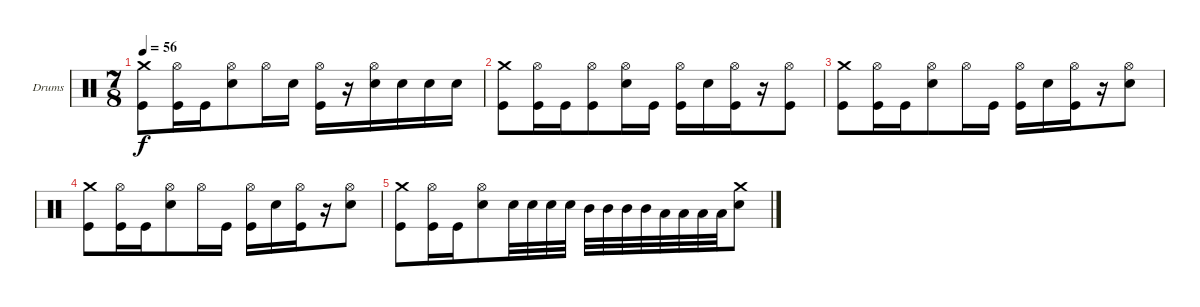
\bracketExtendMode groupsimilarinstruments
\firstSystemTrackNameOrientation horizontal
\otherSystemsTrackNameOrientation horizontal
\track ("Drumkit" "Drums") {instrument percussion}
\staff {score}
\articulation defaults
\ts (7 8)
\tempo 56
\clef neutral
\ks c
("Kick (hit)" "Crash medium (hit)").8{dy f} ("Kick (hit)" "Hi-Hat (open)").16 "Kick (hit)".16 ("Snare (hit) 2" "Hi-Hat (open)").8 "Hi-Hat (open)".16 "Snare (hit) 2".16 ("Kick (hit)" "Hi-Hat (open)").16 r.16 ("Hi-Hat (open)" "Snare (hit) 2").16 "Snare (hit) 2".16 "Snare (hit) 2".16 "Snare (hit) 2".16 |
("Kick (hit)" "Crash medium (hit)").8 ("Kick (hit)" "Hi-Hat (open)").16 "Kick (hit)".16 ("Hi-Hat (open)" "Kick (hit)").8 ("Hi-Hat (open)" "Snare (hit) 2").16 "Kick (hit)".16 ("Hi-Hat (open)" "Kick (hit)").16 "Snare (hit) 2".16 ("Kick (hit)" "Hi-Hat (open)").16 r.16 ("Hi-Hat (open)" "Kick (hit)").8 |
("Kick (hit)" "Crash medium (hit)").8 ("Kick (hit)" "Hi-Hat (open)").16 "Kick (hit)".16 ("Snare (hit) 2" "Hi-Hat (open)").8 "Hi-Hat (open)".16 "Kick (hit)".16 ("Kick (hit)" "Hi-Hat (open)").16 "Snare (hit) 2".16 ("Kick (hit)" "Hi-Hat (open)").16 r.16 ("Snare (hit) 2" "Hi-Hat (open)").8 |
("Kick (hit)" "Crash medium (hit)").8 ("Kick (hit)" "Hi-Hat (open)").16 "Kick (hit)".16 ("Snare (hit) 2" "Hi-Hat (open)").8 "Hi-Hat (open)".16 "Kick (hit)".16 ("Kick (hit)" "Hi-Hat (open)").16 "Snare (hit) 2".16 ("Kick (hit)" "Hi-Hat (open)").16 r.16 ("Snare (hit) 2" "Hi-Hat (open)").8 |
("Kick (hit)" "Crash medium (hit)").8 ("Kick (hit)" "Hi-Hat (open)").16 "Kick (hit)".16 ("Snare (hit) 2" "Hi-Hat (open)").8 "Snare (hit) 2".32 "Snare (hit) 2".32 "Snare (hit) 2".32 "Snare (hit) 2".32 "Mid Tom (hit)".32 "Mid Tom (hit)".32 "Mid Tom (hit)".32 "Mid Tom (hit)".32 "Low Tom (hit)".32 "Low Tom (hit)".32 "Low Tom (hit)".32 "Low Tom (hit)".32 ("Snare (hit) 2" "Crash medium (hit)").8
